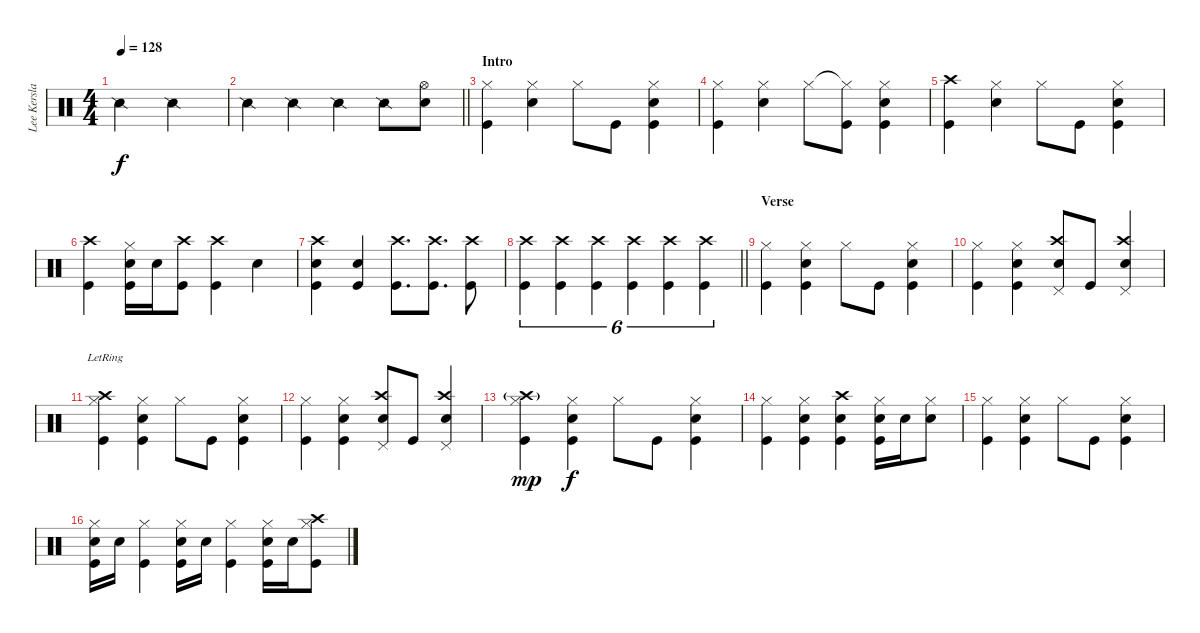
\track ("Lee Kerslake (Drums)" "Lee Kersla") {instrument percussion}
\staff {score}
\articulation defaults
\ts (4 4)
\tempo 128
\clef neutral
\ks c "Snare (side stick) 2".2{dy f} "Snare (side stick) 2".2
|
\barLineRight lightlight "Snare (side stick) 2".4 "Snare (side stick) 2".4 "Snare (side stick) 2".4 "Snare (side stick) 2".8
("Hi-Hat (open)" "Electric Snare (hit)").8 |
\section ("" "Intro")
("Kick (hit)" "Hi-Hat (closed)").4 ("Hi-Hat (closed)" "Electric Snare (hit)").4 "Hi-Hat (closed)".8 "Kick (hit)".8 ("Kick (hit)" "Hi-Hat (closed)" "Electric Snare (hit)").4 |
("Kick (hit)" "Hi-Hat (closed)").4 ("Hi-Hat (closed)" "Electric Snare (hit)").4 "Hi-Hat (closed)".8 ("Hi-Hat (closed)"{t} "Kick (hit)").8 ("Kick (hit)" "Hi-Hat (closed)" "Electric Snare (hit)").4 |
("Kick (hit)" "Crash high (hit)").4 ("Hi-Hat (closed)" "Electric Snare (hit)").4 "Hi-Hat (closed)".8 "Kick (hit)".8 ("Kick (hit)" "Electric Snare (hit)" "Hi-Hat (closed)").4 |
("Crash high (hit)" "Kick (hit)").4 ("Hi-Hat (closed)" "Electric Snare (hit)" "Kick (hit)").16 "Electric Snare (hit)".16 ("Kick (hit)" "Crash high (hit)").8 ("Kick (hit)" "Crash high (hit)").4 "Electric Snare (hit)".4 |
("Kick (hit)" "Electric Snare (hit)" "Crash high (hit)").4 ("Electric Snare (hit)" "Kick (hit)").4 ("Kick (hit)" "Crash high (hit)").8{d} ("Kick (hit)" "Crash high (hit)").8{d} ("Kick (hit)" "Crash high (hit)").8 |
\barLineRight lightlight
("Kick (hit)" "Crash high (hit)").4{tu (6 4)} ("Kick (hit)" "Crash high (hit)").4{tu (6 4)} ("Kick (hit)" "Crash high (hit)").4{tu (6 4)} ("Kick (hit)" "Crash high (hit)").4{tu (6 4)} ("Kick (hit)" "Crash high (hit)").4{tu (6 4)} ("Kick (hit)" "Crash high (hit)").4{tu (6 4)} |
\section ("" "Verse")
("Hi-Hat (closed)" "Kick (hit)").4 ("Hi-Hat (closed)" "Kick (hit)" "Electric Snare (hit)").4 "Hi-Hat (closed)".8 "Kick (hit)".8 ("Hi-Hat (closed)" "Electric Snare (hit)" "Kick (hit)").4 |
("Hi-Hat (closed)" "Kick (hit)").4 ("Hi-Hat (closed)" "Kick (hit)" "Electric Snare (hit)").4 ("Crash high (hit)" "Electric Snare (hit)" "Pedal Hi-Hat (hit)").8 "Kick (hit)".8 ("Crash high (hit)" "Electric Snare (hit)" "Pedal Hi-Hat (hit)").4 |
("Crash high (hit)"{lr} "Hi-Hat (closed)" "Kick (hit)").4 ("Hi-Hat (closed)" "Kick (hit)" "Electric Snare (hit)").4 "Hi-Hat (closed)".8 "Kick (hit)".8 ("Hi-Hat (closed)" "Electric Snare (hit)" "Kick (hit)").4 |
("Hi-Hat (closed)" "Kick (hit)").4 ("Hi-Hat (closed)" "Kick (hit)" "Electric Snare (hit)").4 ("Crash high (hit)" "Electric Snare (hit)" "Pedal Hi-Hat (hit)").8 "Kick (hit)".8 ("Crash high (hit)" "Electric Snare (hit)" "Pedal Hi-Hat (hit)").4 |
("Crash high (hit)"{g} "Hi-Hat (closed)" "Kick (hit)").4{dy mp} ("Hi-Hat (closed)" "Kick (hit)" "Electric Snare (hit)").4{dy f} "Hi-Hat (closed)".8 "Kick (hit)".8 ("Hi-Hat (closed)" "Electric Snare (hit)" "Kick (hit)").4 |
("Hi-Hat (closed)" "Kick (hit)").4 ("Hi-Hat (closed)" "Kick (hit)" "Electric Snare (hit)").4 ("Crash high (hit)" "Electric Snare (hit)" "Kick (hit)").4 ("Electric Snare (hit)" "Hi-Hat (closed)" "Kick (hit)").16 "Electric Snare (hit)".16 ("Electric Snare (hit)" "Hi-Hat (closed)").8 |
("Hi-Hat (closed)" "Kick (hit)").4 ("Hi-Hat (closed)" "Kick (hit)" "Electric Snare (hit)").4 "Hi-Hat (closed)".8 "Kick (hit)".8 ("Hi-Hat (closed)" "Electric Snare (hit)" "Kick (hit)").4 |
("Electric Snare (hit)" "Kick (hit)" "Hi-Hat (closed)").16 "Electric Snare (hit)".16 ("Kick (hit)" "Hi-Hat (closed)").4 ("Electric Snare (hit)" "Kick (hit)" "Hi-Hat (closed)").16 "Electric Snare (hit)".16 ("Kick (hit)" "Hi-Hat (closed)").4 ("Electric Snare (hit)" "Kick (hit)" "Hi-Hat (closed)").16 "Electric Snare (hit)".16 ("Crash high (hit)" "Kick (hit)" "Hi-Hat (closed)").8
